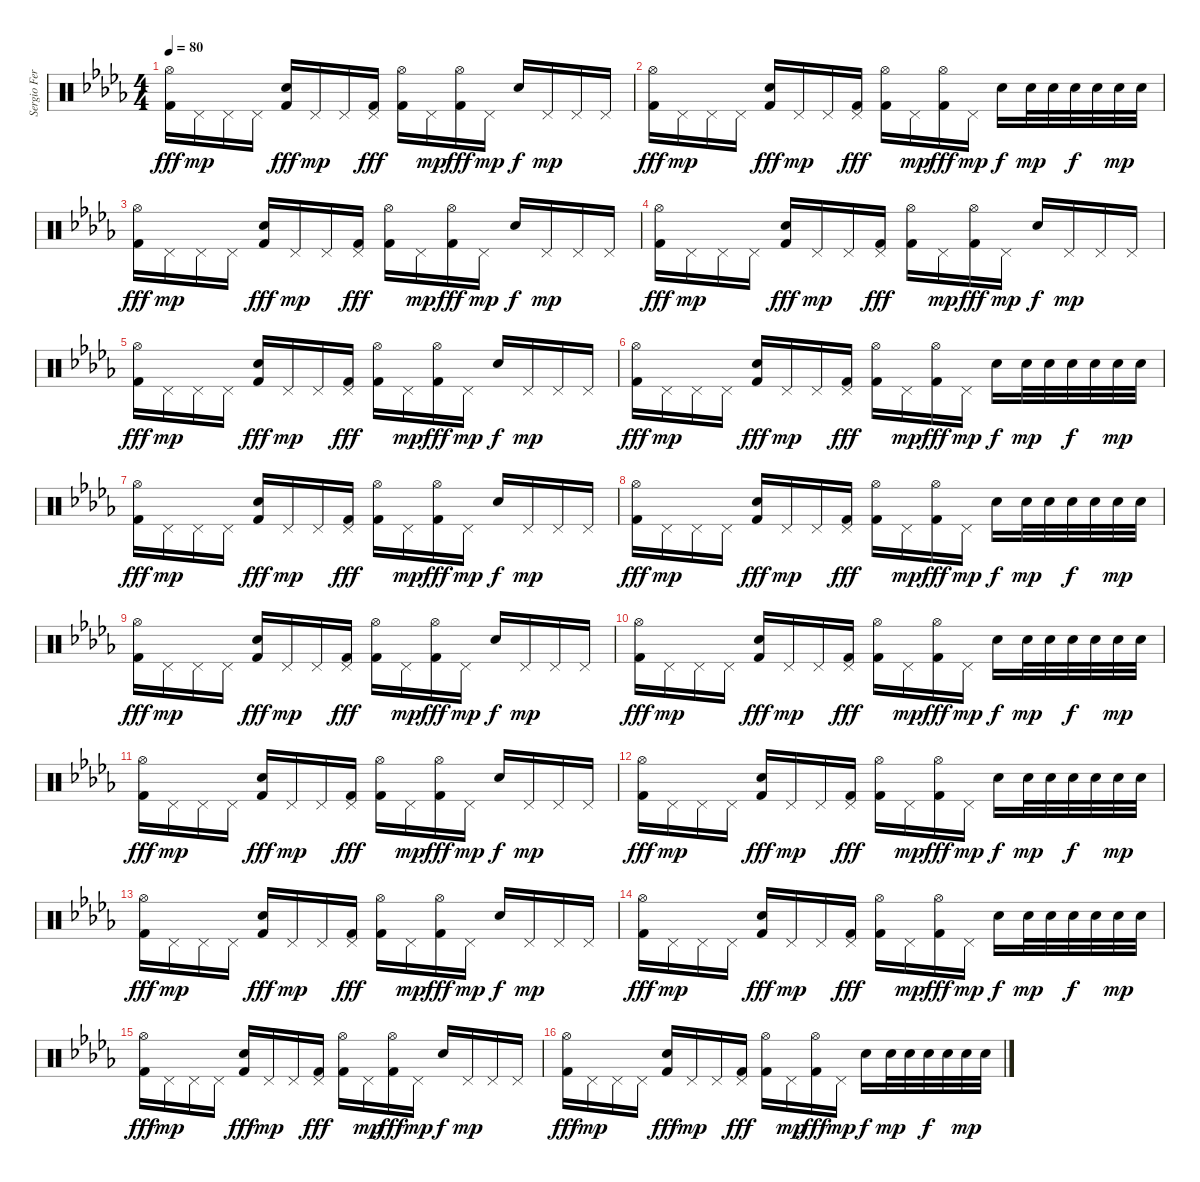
\track ("Sergio Fernandez \"Taz\"" "Sergio Fer") {instrument percussion}
\staff {score}
\articulation defaults
\ts (4 4)
\tempo 80
\clef neutral
\ks bbminor
("Hi-Hat (open)" "Kick (hit) 2").16{dy fff} "Pedal Hi-Hat (hit)".16{dy mp} "Pedal Hi-Hat (hit)".16 "Pedal Hi-Hat (hit)".16 ("Electric Snare (hit)" "Kick (hit) 2").16{dy fff} "Pedal Hi-Hat (hit)".16{dy mp} "Pedal Hi-Hat (hit)".16 ("Pedal Hi-Hat (hit)" "Kick (hit) 2").16{dy fff} ("Hi-Hat (open)" "Kick (hit) 2").16 "Pedal Hi-Hat (hit)".16{dy mp} ("Hi-Hat (open)" "Kick (hit) 2").16{dy fff} "Pedal Hi-Hat (hit)".16{dy mp} "Electric Snare (hit)".16{dy f} "Pedal Hi-Hat (hit)".16{dy mp} "Pedal Hi-Hat (hit)".16 "Pedal Hi-Hat (hit)".16 |
("Hi-Hat (open)" "Kick (hit) 2").16{dy fff} "Pedal Hi-Hat (hit)".16{dy mp} "Pedal Hi-Hat (hit)".16 "Pedal Hi-Hat (hit)".16 ("Electric Snare (hit)" "Kick (hit) 2").16{dy fff} "Pedal Hi-Hat (hit)".16{dy mp} "Pedal Hi-Hat (hit)".16 ("Pedal Hi-Hat (hit)" "Kick (hit) 2").16{dy fff} ("Hi-Hat (open)" "Kick (hit) 2").16 "Pedal Hi-Hat (hit)".16{dy mp} ("Hi-Hat (open)" "Kick (hit) 2").16{dy fff} "Pedal Hi-Hat (hit)".16{dy mp} "Snare (hit) 2".16{dy f} "Snare (hit) 2".32{dy mp} "Snare (hit) 2".32 "Snare (hit) 2".32{dy f} "Snare (hit) 2".32 "Snare (hit) 2".32{dy mp} "Snare (hit) 2".32 |
("Hi-Hat (open)" "Kick (hit) 2").16{dy fff} "Pedal Hi-Hat (hit)".16{dy mp} "Pedal Hi-Hat (hit)".16 "Pedal Hi-Hat (hit)".16 ("Electric Snare (hit)" "Kick (hit) 2").16{dy fff} "Pedal Hi-Hat (hit)".16{dy mp} "Pedal Hi-Hat (hit)".16 ("Pedal Hi-Hat (hit)" "Kick (hit) 2").16{dy fff} ("Hi-Hat (open)" "Kick (hit) 2").16 "Pedal Hi-Hat (hit)".16{dy mp} ("Hi-Hat (open)" "Kick (hit) 2").16{dy fff} "Pedal Hi-Hat (hit)".16{dy mp} "Electric Snare (hit)".16{dy f} "Pedal Hi-Hat (hit)".16{dy mp} "Pedal Hi-Hat (hit)".16 "Pedal Hi-Hat (hit)".16 |
("Hi-Hat (open)" "Kick (hit) 2").16{dy fff} "Pedal Hi-Hat (hit)".16{dy mp} "Pedal Hi-Hat (hit)".16 "Pedal Hi-Hat (hit)".16 ("Electric Snare (hit)" "Kick (hit) 2").16{dy fff} "Pedal Hi-Hat (hit)".16{dy mp} "Pedal Hi-Hat (hit)".16 ("Pedal Hi-Hat (hit)" "Kick (hit) 2").16{dy fff} ("Hi-Hat (open)" "Kick (hit) 2").16 "Pedal Hi-Hat (hit)".16{dy mp} ("Hi-Hat (open)" "Kick (hit) 2").16{dy fff} "Pedal Hi-Hat (hit)".16{dy mp} "Electric Snare (hit)".16{dy f} "Pedal Hi-Hat (hit)".16{dy mp} "Pedal Hi-Hat (hit)".16 "Pedal Hi-Hat (hit)".16 |
("Hi-Hat (open)" "Kick (hit) 2").16{dy fff} "Pedal Hi-Hat (hit)".16{dy mp} "Pedal Hi-Hat (hit)".16 "Pedal Hi-Hat (hit)".16 ("Electric Snare (hit)" "Kick (hit) 2").16{dy fff} "Pedal Hi-Hat (hit)".16{dy mp} "Pedal Hi-Hat (hit)".16 ("Pedal Hi-Hat (hit)" "Kick (hit) 2").16{dy fff} ("Hi-Hat (open)" "Kick (hit) 2").16 "Pedal Hi-Hat (hit)".16{dy mp} ("Hi-Hat (open)" "Kick (hit) 2").16{dy fff} "Pedal Hi-Hat (hit)".16{dy mp} "Electric Snare (hit)".16{dy f} "Pedal Hi-Hat (hit)".16{dy mp} "Pedal Hi-Hat (hit)".16 "Pedal Hi-Hat (hit)".16 |
("Hi-Hat (open)" "Kick (hit) 2").16{dy fff} "Pedal Hi-Hat (hit)".16{dy mp} "Pedal Hi-Hat (hit)".16 "Pedal Hi-Hat (hit)".16 ("Electric Snare (hit)" "Kick (hit) 2").16{dy fff} "Pedal Hi-Hat (hit)".16{dy mp} "Pedal Hi-Hat (hit)".16 ("Pedal Hi-Hat (hit)" "Kick (hit) 2").16{dy fff} ("Hi-Hat (open)" "Kick (hit) 2").16 "Pedal Hi-Hat (hit)".16{dy mp} ("Hi-Hat (open)" "Kick (hit) 2").16{dy fff} "Pedal Hi-Hat (hit)".16{dy mp} "Snare (hit) 2".16{dy f} "Snare (hit) 2".32{dy mp} "Snare (hit) 2".32 "Snare (hit) 2".32{dy f} "Snare (hit) 2".32 "Snare (hit) 2".32{dy mp} "Snare (hit) 2".32 |
("Hi-Hat (open)" "Kick (hit) 2").16{dy fff} "Pedal Hi-Hat (hit)".16{dy mp} "Pedal Hi-Hat (hit)".16 "Pedal Hi-Hat (hit)".16 ("Electric Snare (hit)" "Kick (hit) 2").16{dy fff} "Pedal Hi-Hat (hit)".16{dy mp} "Pedal Hi-Hat (hit)".16 ("Pedal Hi-Hat (hit)" "Kick (hit) 2").16{dy fff} ("Hi-Hat (open)" "Kick (hit) 2").16 "Pedal Hi-Hat (hit)".16{dy mp} ("Hi-Hat (open)" "Kick (hit) 2").16{dy fff} "Pedal Hi-Hat (hit)".16{dy mp} "Electric Snare (hit)".16{dy f} "Pedal Hi-Hat (hit)".16{dy mp} "Pedal Hi-Hat (hit)".16 "Pedal Hi-Hat (hit)".16 |
("Hi-Hat (open)" "Kick (hit) 2").16{dy fff} "Pedal Hi-Hat (hit)".16{dy mp} "Pedal Hi-Hat (hit)".16 "Pedal Hi-Hat (hit)".16 ("Electric Snare (hit)" "Kick (hit) 2").16{dy fff} "Pedal Hi-Hat (hit)".16{dy mp} "Pedal Hi-Hat (hit)".16 ("Pedal Hi-Hat (hit)" "Kick (hit) 2").16{dy fff} ("Hi-Hat (open)" "Kick (hit) 2").16 "Pedal Hi-Hat (hit)".16{dy mp} ("Hi-Hat (open)" "Kick (hit) 2").16{dy fff} "Pedal Hi-Hat (hit)".16{dy mp} "Snare (hit) 2".16{dy f} "Snare (hit) 2".32{dy mp} "Snare (hit) 2".32 "Snare (hit) 2".32{dy f} "Snare (hit) 2".32 "Snare (hit) 2".32{dy mp} "Snare (hit) 2".32 |
("Hi-Hat (open)" "Kick (hit) 2").16{dy fff} "Pedal Hi-Hat (hit)".16{dy mp} "Pedal Hi-Hat (hit)".16 "Pedal Hi-Hat (hit)".16 ("Electric Snare (hit)" "Kick (hit) 2").16{dy fff} "Pedal Hi-Hat (hit)".16{dy mp} "Pedal Hi-Hat (hit)".16 ("Pedal Hi-Hat (hit)" "Kick (hit) 2").16{dy fff} ("Hi-Hat (open)" "Kick (hit) 2").16 "Pedal Hi-Hat (hit)".16{dy mp} ("Hi-Hat (open)" "Kick (hit) 2").16{dy fff} "Pedal Hi-Hat (hit)".16{dy mp} "Electric Snare (hit)".16{dy f} "Pedal Hi-Hat (hit)".16{dy mp} "Pedal Hi-Hat (hit)".16 "Pedal Hi-Hat (hit)".16 |
("Hi-Hat (open)" "Kick (hit) 2").16{dy fff} "Pedal Hi-Hat (hit)".16{dy mp} "Pedal Hi-Hat (hit)".16 "Pedal Hi-Hat (hit)".16 ("Electric Snare (hit)" "Kick (hit) 2").16{dy fff} "Pedal Hi-Hat (hit)".16{dy mp} "Pedal Hi-Hat (hit)".16 ("Pedal Hi-Hat (hit)" "Kick (hit) 2").16{dy fff} ("Hi-Hat (open)" "Kick (hit) 2").16 "Pedal Hi-Hat (hit)".16{dy mp} ("Hi-Hat (open)" "Kick (hit) 2").16{dy fff} "Pedal Hi-Hat (hit)".16{dy mp} "Snare (hit) 2".16{dy f} "Snare (hit) 2".32{dy mp} "Snare (hit) 2".32 "Snare (hit) 2".32{dy f} "Snare (hit) 2".32 "Snare (hit) 2".32{dy mp} "Snare (hit) 2".32 |
("Hi-Hat (open)" "Kick (hit) 2").16{dy fff} "Pedal Hi-Hat (hit)".16{dy mp} "Pedal Hi-Hat (hit)".16 "Pedal Hi-Hat (hit)".16 ("Electric Snare (hit)" "Kick (hit) 2").16{dy fff} "Pedal Hi-Hat (hit)".16{dy mp} "Pedal Hi-Hat (hit)".16 ("Pedal Hi-Hat (hit)" "Kick (hit) 2").16{dy fff} ("Hi-Hat (open)" "Kick (hit) 2").16 "Pedal Hi-Hat (hit)".16{dy mp} ("Hi-Hat (open)" "Kick (hit) 2").16{dy fff} "Pedal Hi-Hat (hit)".16{dy mp} "Electric Snare (hit)".16{dy f} "Pedal Hi-Hat (hit)".16{dy mp} "Pedal Hi-Hat (hit)".16 "Pedal Hi-Hat (hit)".16 |
("Hi-Hat (open)" "Kick (hit) 2").16{dy fff} "Pedal Hi-Hat (hit)".16{dy mp} "Pedal Hi-Hat (hit)".16 "Pedal Hi-Hat (hit)".16 ("Electric Snare (hit)" "Kick (hit) 2").16{dy fff} "Pedal Hi-Hat (hit)".16{dy mp} "Pedal Hi-Hat (hit)".16 ("Pedal Hi-Hat (hit)" "Kick (hit) 2").16{dy fff} ("Hi-Hat (open)" "Kick (hit) 2").16 "Pedal Hi-Hat (hit)".16{dy mp} ("Hi-Hat (open)" "Kick (hit) 2").16{dy fff} "Pedal Hi-Hat (hit)".16{dy mp} "Snare (hit) 2".16{dy f} "Snare (hit) 2".32{dy mp} "Snare (hit) 2".32 "Snare (hit) 2".32{dy f} "Snare (hit) 2".32 "Snare (hit) 2".32{dy mp} "Snare (hit) 2".32 |
("Hi-Hat (open)" "Kick (hit) 2").16{dy fff} "Pedal Hi-Hat (hit)".16{dy mp} "Pedal Hi-Hat (hit)".16 "Pedal Hi-Hat (hit)".16 ("Electric Snare (hit)" "Kick (hit) 2").16{dy fff} "Pedal Hi-Hat (hit)".16{dy mp} "Pedal Hi-Hat (hit)".16 ("Pedal Hi-Hat (hit)" "Kick (hit) 2").16{dy fff} ("Hi-Hat (open)" "Kick (hit) 2").16 "Pedal Hi-Hat (hit)".16{dy mp} ("Hi-Hat (open)" "Kick (hit) 2").16{dy fff} "Pedal Hi-Hat (hit)".16{dy mp} "Electric Snare (hit)".16{dy f} "Pedal Hi-Hat (hit)".16{dy mp} "Pedal Hi-Hat (hit)".16 "Pedal Hi-Hat (hit)".16 |
("Hi-Hat (open)" "Kick (hit) 2").16{dy fff} "Pedal Hi-Hat (hit)".16{dy mp} "Pedal Hi-Hat (hit)".16 "Pedal Hi-Hat (hit)".16 ("Electric Snare (hit)" "Kick (hit) 2").16{dy fff} "Pedal Hi-Hat (hit)".16{dy mp} "Pedal Hi-Hat (hit)".16 ("Pedal Hi-Hat (hit)" "Kick (hit) 2").16{dy fff} ("Hi-Hat (open)" "Kick (hit) 2").16 "Pedal Hi-Hat (hit)".16{dy mp} ("Hi-Hat (open)" "Kick (hit) 2").16{dy fff} "Pedal Hi-Hat (hit)".16{dy mp} "Snare (hit) 2".16{dy f} "Snare (hit) 2".32{dy mp} "Snare (hit) 2".32 "Snare (hit) 2".32{dy f} "Snare (hit) 2".32 "Snare (hit) 2".32{dy mp} "Snare (hit) 2".32 |
("Hi-Hat (open)" "Kick (hit) 2").16{dy fff} "Pedal Hi-Hat (hit)".16{dy mp} "Pedal Hi-Hat (hit)".16 "Pedal Hi-Hat (hit)".16 ("Electric Snare (hit)" "Kick (hit) 2").16{dy fff} "Pedal Hi-Hat (hit)".16{dy mp} "Pedal Hi-Hat (hit)".16 ("Pedal Hi-Hat (hit)" "Kick (hit) 2").16{dy fff} ("Hi-Hat (open)" "Kick (hit) 2").16 "Pedal Hi-Hat (hit)".16{dy mp} ("Hi-Hat (open)" "Kick (hit) 2").16{dy fff} "Pedal Hi-Hat (hit)".16{dy mp} "Electric Snare (hit)".16{dy f} "Pedal Hi-Hat (hit)".16{dy mp} "Pedal Hi-Hat (hit)".16 "Pedal Hi-Hat (hit)".16 |
("Hi-Hat (open)" "Kick (hit) 2").16{dy fff} "Pedal Hi-Hat (hit)".16{dy mp} "Pedal Hi-Hat (hit)".16 "Pedal Hi-Hat (hit)".16 ("Electric Snare (hit)" "Kick (hit) 2").16{dy fff} "Pedal Hi-Hat (hit)".16{dy mp} "Pedal Hi-Hat (hit)".16 ("Pedal Hi-Hat (hit)" "Kick (hit) 2").16{dy fff} ("Hi-Hat (open)" "Kick (hit) 2").16 "Pedal Hi-Hat (hit)".16{dy mp} ("Hi-Hat (open)" "Kick (hit) 2").16{dy fff} "Pedal Hi-Hat (hit)".16{dy mp} "Snare (hit) 2".16{dy f} "Snare (hit) 2".32{dy mp} "Snare (hit) 2".32 "Snare (hit) 2".32{dy f} "Snare (hit) 2".32 "Snare (hit) 2".32{dy mp} "Snare (hit) 2".32
